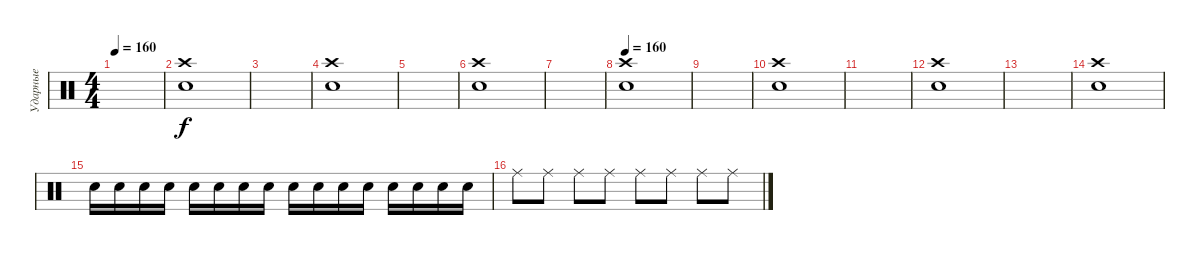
\track ("Ударные" "Ударные") {instrument percussion}
\staff {score}
\articulation defaults
\ts (4 4)
\tempo 160
\clef neutral
\ks c
|
("Snare (hit) 2" "Crash high (hit)").1 |
|
("Snare (hit) 2" "Crash high (hit)").1 |
|
("Snare (hit) 2" "Crash high (hit)").1 |
|
\tempo 160
("Snare (hit) 2" "Crash high (hit)").1 |
|
("Snare (hit) 2" "Crash high (hit)").1 |
|
("Snare (hit) 2" "Crash high (hit)").1 |
|
("Snare (hit) 2" "Crash high (hit)").1 |
"Snare (hit) 2".16 "Snare (hit) 2".16 "Snare (hit) 2".16 "Snare (hit) 2".16 "Snare (hit) 2".16 "Snare (hit) 2".16 "Snare (hit) 2".16 "Snare (hit) 2".16 "Snare (hit) 2".16 "Snare (hit) 2".16 "Snare (hit) 2".16 "Snare (hit) 2".16 "Snare (hit) 2".16 "Snare (hit) 2".16 "Snare (hit) 2".16 "Snare (hit) 2".16 |
"Ride (middle)".8 "Ride (middle)".8 "Ride (middle)".8 "Ride (middle)".8 "Ride (middle)".8 "Ride (middle)".8 "Ride (middle)".8 "Ride (middle)".8
